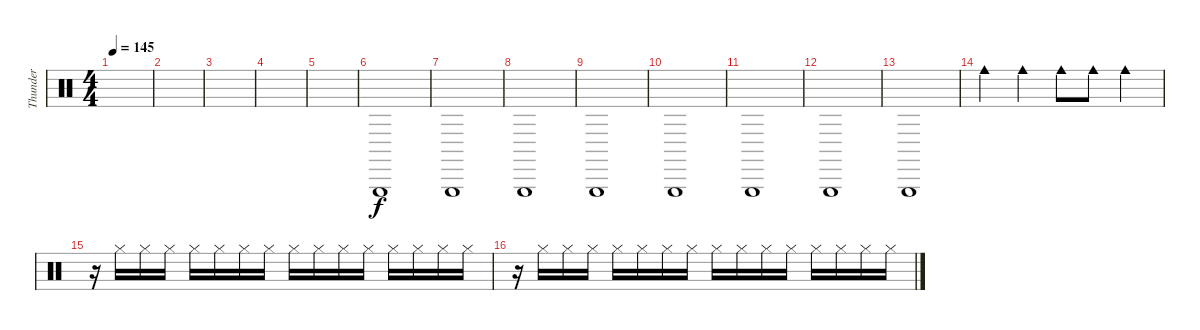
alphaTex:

\track ("Thunder" "Thunder") {instrument percussion}
\staff {score}
\articulation defaults
\ts (4 4)
\tempo 145
\clef neutral
\ks c
|
|
|
|
|
"Triangle (hit)".1 |
"Triangle (hit)".1 |
"Triangle (hit)".1 |
"Triangle (hit)".1 |
"Triangle (hit)".1 |
"Triangle (hit)".1 |
"Triangle (hit)".1 |
"Triangle (hit)".1 |
"Cowbell medium (hit)".4 "Cowbell medium (hit)".4 "Cowbell medium (hit)".8 "Cowbell medium (hit)".8 "Cowbell medium (hit)".4 |
r.16 "Hi-Hat (closed)".16 "Hi-Hat (closed)".16 "Hi-Hat (closed)".16 "Hi-Hat (closed)".16 "Hi-Hat (closed)".16 "Hi-Hat (closed)".16 "Hi-Hat (closed)".16 "Hi-Hat (closed)".16 "Hi-Hat (closed)".16 "Hi-Hat (closed)".16 "Hi-Hat (closed)".16 "Hi-Hat (closed)".16 "Hi-Hat (closed)".16 "Hi-Hat (closed)".16 "Hi-Hat (closed)".16 |
r.16 "Hi-Hat (closed)".16 "Hi-Hat (closed)".16 "Hi-Hat (closed)".16 "Hi-Hat (closed)".16 "Hi-Hat (closed)".16 "Hi-Hat (closed)".16 "Hi-Hat (closed)".16 "Hi-Hat (closed)".16 "Hi-Hat (closed)".16 "Hi-Hat (closed)".16 "Hi-Hat (closed)".16 "Hi-Hat (closed)".16 "Hi-Hat (closed)".16 "Hi-Hat (closed)".16 "Hi-Hat (closed)".16
